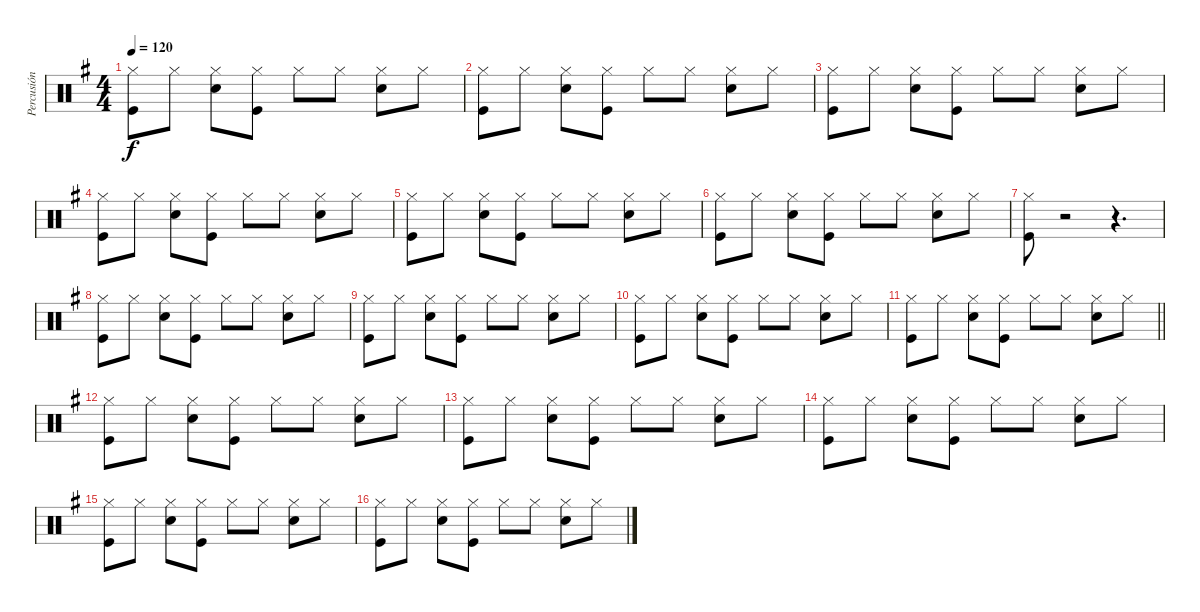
\track ("Percusión" "Percusión") {instrument percussion}
\staff {score}
\articulation defaults
\ts (4 4)
\tempo 120
\clef neutral
\ks g
("Hi-Hat (closed)" "Kick (hit)").8{dy f} "Hi-Hat (closed)".8 ("Hi-Hat (closed)" "Electric Snare (hit)").8 ("Hi-Hat (closed)" "Kick (hit)").8 "Hi-Hat (closed)".8 "Hi-Hat (closed)".8 ("Hi-Hat (closed)" "Electric Snare (hit)").8 "Hi-Hat (closed)".8 |
("Hi-Hat (closed)" "Kick (hit)").8 "Hi-Hat (closed)".8 ("Hi-Hat (closed)" "Electric Snare (hit)").8 ("Hi-Hat (closed)" "Kick (hit)").8 "Hi-Hat (closed)".8 "Hi-Hat (closed)".8 ("Hi-Hat (closed)" "Electric Snare (hit)").8 "Hi-Hat (closed)".8 |
("Hi-Hat (closed)" "Kick (hit)").8 "Hi-Hat (closed)".8 ("Hi-Hat (closed)" "Electric Snare (hit)").8 ("Hi-Hat (closed)" "Kick (hit)").8 "Hi-Hat (closed)".8 "Hi-Hat (closed)".8 ("Hi-Hat (closed)" "Electric Snare (hit)").8 "Hi-Hat (closed)".8 |
("Hi-Hat (closed)" "Kick (hit)").8 "Hi-Hat (closed)".8 ("Hi-Hat (closed)" "Electric Snare (hit)").8 ("Hi-Hat (closed)" "Kick (hit)").8 "Hi-Hat (closed)".8 "Hi-Hat (closed)".8 ("Hi-Hat (closed)" "Electric Snare (hit)").8 "Hi-Hat (closed)".8 |
("Hi-Hat (closed)" "Kick (hit)").8 "Hi-Hat (closed)".8 ("Hi-Hat (closed)" "Electric Snare (hit)").8 ("Hi-Hat (closed)" "Kick (hit)").8 "Hi-Hat (closed)".8 "Hi-Hat (closed)".8 ("Hi-Hat (closed)" "Electric Snare (hit)").8 "Hi-Hat (closed)".8 |
("Hi-Hat (closed)" "Kick (hit)").8 "Hi-Hat (closed)".8 ("Hi-Hat (closed)" "Electric Snare (hit)").8 ("Hi-Hat (closed)" "Kick (hit)").8 "Hi-Hat (closed)".8 "Hi-Hat (closed)".8 ("Hi-Hat (closed)" "Electric Snare (hit)").8 "Hi-Hat (closed)".8 |
("Hi-Hat (closed)" "Kick (hit)").8 r.2 r.4{d} |
("Hi-Hat (closed)" "Kick (hit)").8 "Hi-Hat (closed)".8 ("Hi-Hat (closed)" "Electric Snare (hit)").8 ("Hi-Hat (closed)" "Kick (hit)").8 "Hi-Hat (closed)".8 "Hi-Hat (closed)".8 ("Hi-Hat (closed)" "Electric Snare (hit)").8 "Hi-Hat (closed)".8 |
("Hi-Hat (closed)" "Kick (hit)").8 "Hi-Hat (closed)".8 ("Hi-Hat (closed)" "Electric Snare (hit)").8 ("Hi-Hat (closed)" "Kick (hit)").8 "Hi-Hat (closed)".8 "Hi-Hat (closed)".8 ("Hi-Hat (closed)" "Electric Snare (hit)").8 "Hi-Hat (closed)".8 |
("Hi-Hat (closed)" "Kick (hit)").8 "Hi-Hat (closed)".8 ("Hi-Hat (closed)" "Electric Snare (hit)").8 ("Hi-Hat (closed)" "Kick (hit)").8 "Hi-Hat (closed)".8 "Hi-Hat (closed)".8 ("Hi-Hat (closed)" "Electric Snare (hit)").8 "Hi-Hat (closed)".8 |
\barLineRight lightlight
("Hi-Hat (closed)" "Kick (hit)").8 "Hi-Hat (closed)".8 ("Hi-Hat (closed)" "Electric Snare (hit)").8 ("Hi-Hat (closed)" "Kick (hit)").8 "Hi-Hat (closed)".8 "Hi-Hat (closed)".8 ("Hi-Hat (closed)" "Electric Snare (hit)").8 "Hi-Hat (closed)".8 |
("Hi-Hat (closed)" "Kick (hit)").8 "Hi-Hat (closed)".8 ("Hi-Hat (closed)" "Electric Snare (hit)").8 ("Hi-Hat (closed)" "Kick (hit)").8 "Hi-Hat (closed)".8 "Hi-Hat (closed)".8 ("Hi-Hat (closed)" "Electric Snare (hit)").8 "Hi-Hat (closed)".8 |
("Hi-Hat (closed)" "Kick (hit)").8 "Hi-Hat (closed)".8 ("Hi-Hat (closed)" "Electric Snare (hit)").8 ("Hi-Hat (closed)" "Kick (hit)").8 "Hi-Hat (closed)".8 "Hi-Hat (closed)".8 ("Hi-Hat (closed)" "Electric Snare (hit)").8 "Hi-Hat (closed)".8 |
("Hi-Hat (closed)" "Kick (hit)").8 "Hi-Hat (closed)".8 ("Hi-Hat (closed)" "Electric Snare (hit)").8 ("Hi-Hat (closed)" "Kick (hit)").8 "Hi-Hat (closed)".8 "Hi-Hat (closed)".8 ("Hi-Hat (closed)" "Electric Snare (hit)").8 "Hi-Hat (closed)".8 |
("Hi-Hat (closed)" "Kick (hit)").8 "Hi-Hat (closed)".8 ("Hi-Hat (closed)" "Electric Snare (hit)").8 ("Hi-Hat (closed)" "Kick (hit)").8 "Hi-Hat (closed)".8 "Hi-Hat (closed)".8 ("Hi-Hat (closed)" "Electric Snare (hit)").8 "Hi-Hat (closed)".8 |
("Hi-Hat (closed)" "Kick (hit)").8 "Hi-Hat (closed)".8 ("Hi-Hat (closed)" "Electric Snare (hit)").8 ("Hi-Hat (closed)" "Kick (hit)").8 "Hi-Hat (closed)".8 "Hi-Hat (closed)".8 ("Hi-Hat (closed)" "Electric Snare (hit)").8 "Hi-Hat (closed)".8
